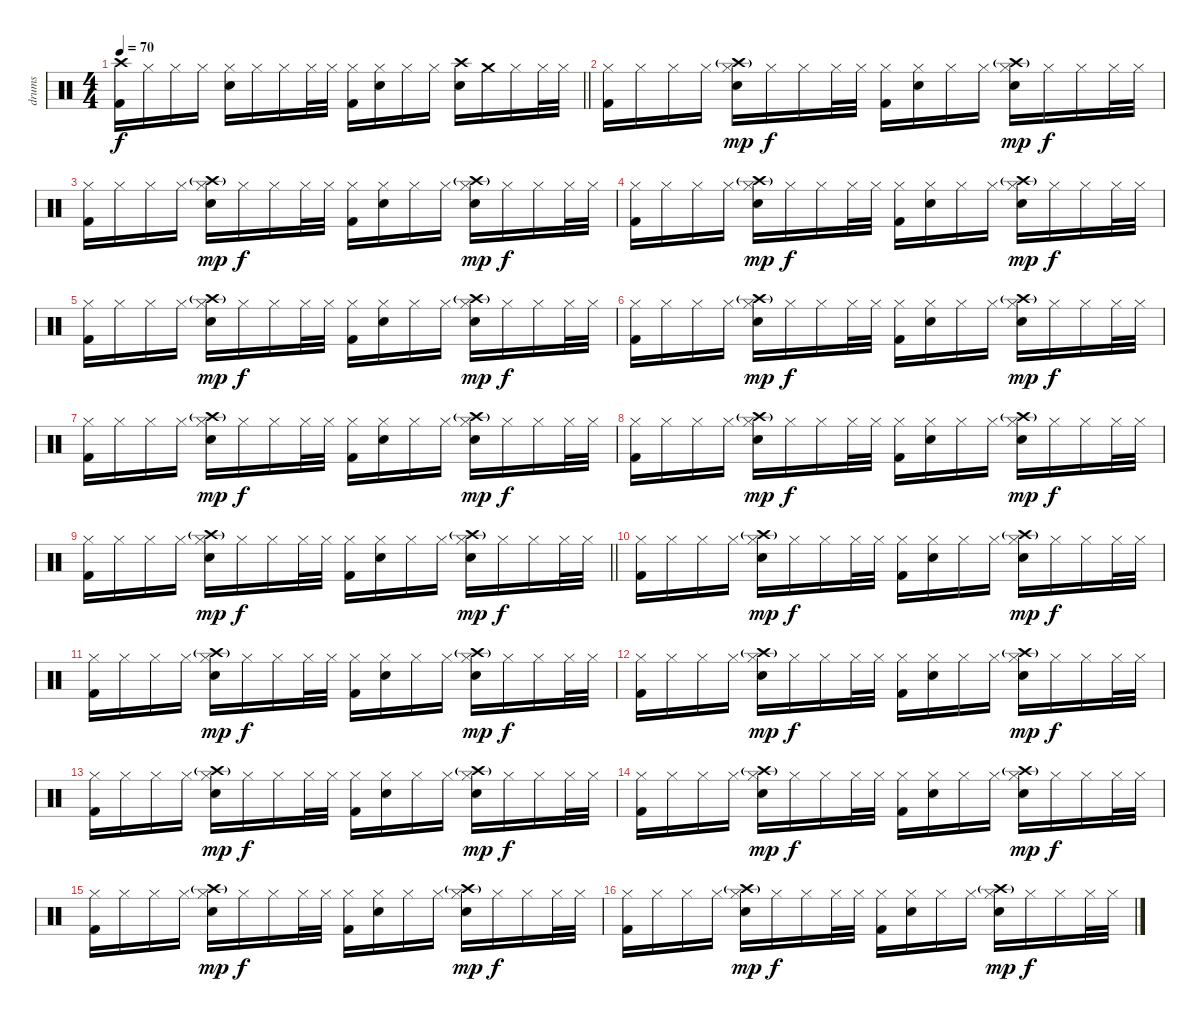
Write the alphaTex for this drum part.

\track ("drums" "drums") {instrument percussion}
\staff {score}
\articulation defaults
\ts (4 4)
\tempo 70
\clef neutral
\barLineRight lightlight
\ks c
("Crash high (hit)" "Kick (hit) 2").16{dy f} "Hi-Hat (closed)".16 "Hi-Hat (closed)".16 "Hi-Hat (closed)".16 ("Hi-Hat (closed)" "Snare (hit) 2").16 "Hi-Hat (closed)".16 "Hi-Hat (closed)".16 "Hi-Hat (closed)".32 "Hi-Hat (closed)".32 ("Hi-Hat (closed)" "Kick (hit) 2").16 ("Hi-Hat (closed)" "Snare (hit) 2").16 "Hi-Hat (closed)".16 "Hi-Hat (closed)".16 ("Crash high (hit)" "Snare (hit) 2").16 "Crash medium (hit)".16 "Hi-Hat (closed)".16 "Hi-Hat (closed)".32 "Hi-Hat (closed)".32 |
("Hi-Hat (closed)" "Kick (hit) 2").16 "Hi-Hat (closed)".16 "Hi-Hat (closed)".16 "Hi-Hat (closed)".16 ("Hi-Hat (closed)" "Crash high (hit)"{g} "Snare (hit) 2").16{dy mp} "Hi-Hat (closed)".16{dy f} "Hi-Hat (closed)".16 "Hi-Hat (closed)".32 "Hi-Hat (closed)".32 ("Hi-Hat (closed)" "Kick (hit) 2").16 ("Hi-Hat (closed)" "Snare (hit) 2").16 "Hi-Hat (closed)".16 "Hi-Hat (closed)".16 ("Hi-Hat (closed)" "Crash high (hit)"{g} "Snare (hit) 2").16{dy mp} "Hi-Hat (closed)".16{dy f} "Hi-Hat (closed)".16 "Hi-Hat (closed)".32 "Hi-Hat (closed)".32 |
("Hi-Hat (closed)" "Kick (hit) 2").16 "Hi-Hat (closed)".16 "Hi-Hat (closed)".16 "Hi-Hat (closed)".16 ("Hi-Hat (closed)" "Crash high (hit)"{g} "Snare (hit) 2").16{dy mp} "Hi-Hat (closed)".16{dy f} "Hi-Hat (closed)".16 "Hi-Hat (closed)".32 "Hi-Hat (closed)".32 ("Hi-Hat (closed)" "Kick (hit) 2").16 ("Hi-Hat (closed)" "Snare (hit) 2").16 "Hi-Hat (closed)".16 "Hi-Hat (closed)".16 ("Hi-Hat (closed)" "Crash high (hit)"{g} "Snare (hit) 2").16{dy mp} "Hi-Hat (closed)".16{dy f} "Hi-Hat (closed)".16 "Hi-Hat (closed)".32 "Hi-Hat (closed)".32 |
("Hi-Hat (closed)" "Kick (hit) 2").16 "Hi-Hat (closed)".16 "Hi-Hat (closed)".16 "Hi-Hat (closed)".16 ("Hi-Hat (closed)" "Crash high (hit)"{g} "Snare (hit) 2").16{dy mp} "Hi-Hat (closed)".16{dy f} "Hi-Hat (closed)".16 "Hi-Hat (closed)".32 "Hi-Hat (closed)".32 ("Hi-Hat (closed)" "Kick (hit) 2").16 ("Hi-Hat (closed)" "Snare (hit) 2").16 "Hi-Hat (closed)".16 "Hi-Hat (closed)".16 ("Hi-Hat (closed)" "Crash high (hit)"{g} "Snare (hit) 2").16{dy mp} "Hi-Hat (closed)".16{dy f} "Hi-Hat (closed)".16 "Hi-Hat (closed)".32 "Hi-Hat (closed)".32 |
("Hi-Hat (closed)" "Kick (hit) 2").16 "Hi-Hat (closed)".16 "Hi-Hat (closed)".16 "Hi-Hat (closed)".16 ("Hi-Hat (closed)" "Crash high (hit)"{g} "Snare (hit) 2").16{dy mp} "Hi-Hat (closed)".16{dy f} "Hi-Hat (closed)".16 "Hi-Hat (closed)".32 "Hi-Hat (closed)".32 ("Hi-Hat (closed)" "Kick (hit) 2").16 ("Hi-Hat (closed)" "Snare (hit) 2").16 "Hi-Hat (closed)".16 "Hi-Hat (closed)".16 ("Hi-Hat (closed)" "Crash high (hit)"{g} "Snare (hit) 2").16{dy mp} "Hi-Hat (closed)".16{dy f} "Hi-Hat (closed)".16 "Hi-Hat (closed)".32 "Hi-Hat (closed)".32 |
("Hi-Hat (closed)" "Kick (hit) 2").16 "Hi-Hat (closed)".16 "Hi-Hat (closed)".16 "Hi-Hat (closed)".16 ("Hi-Hat (closed)" "Crash high (hit)"{g} "Snare (hit) 2").16{dy mp} "Hi-Hat (closed)".16{dy f} "Hi-Hat (closed)".16 "Hi-Hat (closed)".32 "Hi-Hat (closed)".32 ("Hi-Hat (closed)" "Kick (hit) 2").16 ("Hi-Hat (closed)" "Snare (hit) 2").16 "Hi-Hat (closed)".16 "Hi-Hat (closed)".16 ("Hi-Hat (closed)" "Crash high (hit)"{g} "Snare (hit) 2").16{dy mp} "Hi-Hat (closed)".16{dy f} "Hi-Hat (closed)".16 "Hi-Hat (closed)".32 "Hi-Hat (closed)".32 |
("Hi-Hat (closed)" "Kick (hit) 2").16 "Hi-Hat (closed)".16 "Hi-Hat (closed)".16 "Hi-Hat (closed)".16 ("Hi-Hat (closed)" "Crash high (hit)"{g} "Snare (hit) 2").16{dy mp} "Hi-Hat (closed)".16{dy f} "Hi-Hat (closed)".16 "Hi-Hat (closed)".32 "Hi-Hat (closed)".32 ("Hi-Hat (closed)" "Kick (hit) 2").16 ("Hi-Hat (closed)" "Snare (hit) 2").16 "Hi-Hat (closed)".16 "Hi-Hat (closed)".16 ("Hi-Hat (closed)" "Crash high (hit)"{g} "Snare (hit) 2").16{dy mp} "Hi-Hat (closed)".16{dy f} "Hi-Hat (closed)".16 "Hi-Hat (closed)".32 "Hi-Hat (closed)".32 |
("Hi-Hat (closed)" "Kick (hit) 2").16 "Hi-Hat (closed)".16 "Hi-Hat (closed)".16 "Hi-Hat (closed)".16 ("Hi-Hat (closed)" "Crash high (hit)"{g} "Snare (hit) 2").16{dy mp} "Hi-Hat (closed)".16{dy f} "Hi-Hat (closed)".16 "Hi-Hat (closed)".32 "Hi-Hat (closed)".32 ("Hi-Hat (closed)" "Kick (hit) 2").16 ("Hi-Hat (closed)" "Snare (hit) 2").16 "Hi-Hat (closed)".16 "Hi-Hat (closed)".16 ("Hi-Hat (closed)" "Crash high (hit)"{g} "Snare (hit) 2").16{dy mp} "Hi-Hat (closed)".16{dy f} "Hi-Hat (closed)".16 "Hi-Hat (closed)".32 "Hi-Hat (closed)".32 |
\barLineRight lightlight
("Hi-Hat (closed)" "Kick (hit) 2").16 "Hi-Hat (closed)".16 "Hi-Hat (closed)".16 "Hi-Hat (closed)".16 ("Hi-Hat (closed)" "Crash high (hit)"{g} "Snare (hit) 2").16{dy mp} "Hi-Hat (closed)".16{dy f} "Hi-Hat (closed)".16 "Hi-Hat (closed)".32 "Hi-Hat (closed)".32 ("Hi-Hat (closed)" "Kick (hit) 2").16 ("Hi-Hat (closed)" "Snare (hit) 2").16 "Hi-Hat (closed)".16 "Hi-Hat (closed)".16 ("Hi-Hat (closed)" "Crash high (hit)"{g} "Snare (hit) 2").16{dy mp} "Hi-Hat (closed)".16{dy f} "Hi-Hat (closed)".16 "Hi-Hat (closed)".32 "Hi-Hat (closed)".32 |
("Hi-Hat (closed)" "Kick (hit) 2").16 "Hi-Hat (closed)".16 "Hi-Hat (closed)".16 "Hi-Hat (closed)".16 ("Hi-Hat (closed)" "Crash high (hit)"{g} "Snare (hit) 2").16{dy mp} "Hi-Hat (closed)".16{dy f} "Hi-Hat (closed)".16 "Hi-Hat (closed)".32 "Hi-Hat (closed)".32 ("Hi-Hat (closed)" "Kick (hit) 2").16 ("Hi-Hat (closed)" "Snare (hit) 2").16 "Hi-Hat (closed)".16 "Hi-Hat (closed)".16 ("Hi-Hat (closed)" "Crash high (hit)"{g} "Snare (hit) 2").16{dy mp} "Hi-Hat (closed)".16{dy f} "Hi-Hat (closed)".16 "Hi-Hat (closed)".32 "Hi-Hat (closed)".32 |
("Hi-Hat (closed)" "Kick (hit) 2").16 "Hi-Hat (closed)".16 "Hi-Hat (closed)".16 "Hi-Hat (closed)".16 ("Hi-Hat (closed)" "Crash high (hit)"{g} "Snare (hit) 2").16{dy mp} "Hi-Hat (closed)".16{dy f} "Hi-Hat (closed)".16 "Hi-Hat (closed)".32 "Hi-Hat (closed)".32 ("Hi-Hat (closed)" "Kick (hit) 2").16 ("Hi-Hat (closed)" "Snare (hit) 2").16 "Hi-Hat (closed)".16 "Hi-Hat (closed)".16 ("Hi-Hat (closed)" "Crash high (hit)"{g} "Snare (hit) 2").16{dy mp} "Hi-Hat (closed)".16{dy f} "Hi-Hat (closed)".16 "Hi-Hat (closed)".32 "Hi-Hat (closed)".32 |
("Hi-Hat (closed)" "Kick (hit) 2").16 "Hi-Hat (closed)".16 "Hi-Hat (closed)".16 "Hi-Hat (closed)".16 ("Hi-Hat (closed)" "Crash high (hit)"{g} "Snare (hit) 2").16{dy mp} "Hi-Hat (closed)".16{dy f} "Hi-Hat (closed)".16 "Hi-Hat (closed)".32 "Hi-Hat (closed)".32 ("Hi-Hat (closed)" "Kick (hit) 2").16 ("Hi-Hat (closed)" "Snare (hit) 2").16 "Hi-Hat (closed)".16 "Hi-Hat (closed)".16 ("Hi-Hat (closed)" "Crash high (hit)"{g} "Snare (hit) 2").16{dy mp} "Hi-Hat (closed)".16{dy f} "Hi-Hat (closed)".16 "Hi-Hat (closed)".32 "Hi-Hat (closed)".32 |
("Hi-Hat (closed)" "Kick (hit) 2").16 "Hi-Hat (closed)".16 "Hi-Hat (closed)".16 "Hi-Hat (closed)".16 ("Hi-Hat (closed)" "Crash high (hit)"{g} "Snare (hit) 2").16{dy mp} "Hi-Hat (closed)".16{dy f} "Hi-Hat (closed)".16 "Hi-Hat (closed)".32 "Hi-Hat (closed)".32 ("Hi-Hat (closed)" "Kick (hit) 2").16 ("Hi-Hat (closed)" "Snare (hit) 2").16 "Hi-Hat (closed)".16 "Hi-Hat (closed)".16 ("Hi-Hat (closed)" "Crash high (hit)"{g} "Snare (hit) 2").16{dy mp} "Hi-Hat (closed)".16{dy f} "Hi-Hat (closed)".16 "Hi-Hat (closed)".32 "Hi-Hat (closed)".32 |
("Hi-Hat (closed)" "Kick (hit) 2").16 "Hi-Hat (closed)".16 "Hi-Hat (closed)".16 "Hi-Hat (closed)".16 ("Hi-Hat (closed)" "Crash high (hit)"{g} "Snare (hit) 2").16{dy mp} "Hi-Hat (closed)".16{dy f} "Hi-Hat (closed)".16 "Hi-Hat (closed)".32 "Hi-Hat (closed)".32 ("Hi-Hat (closed)" "Kick (hit) 2").16 ("Hi-Hat (closed)" "Snare (hit) 2").16 "Hi-Hat (closed)".16 "Hi-Hat (closed)".16 ("Hi-Hat (closed)" "Crash high (hit)"{g} "Snare (hit) 2").16{dy mp} "Hi-Hat (closed)".16{dy f} "Hi-Hat (closed)".16 "Hi-Hat (closed)".32 "Hi-Hat (closed)".32 |
("Hi-Hat (closed)" "Kick (hit) 2").16 "Hi-Hat (closed)".16 "Hi-Hat (closed)".16 "Hi-Hat (closed)".16 ("Hi-Hat (closed)" "Crash high (hit)"{g} "Snare (hit) 2").16{dy mp} "Hi-Hat (closed)".16{dy f} "Hi-Hat (closed)".16 "Hi-Hat (closed)".32 "Hi-Hat (closed)".32 ("Hi-Hat (closed)" "Kick (hit) 2").16 ("Hi-Hat (closed)" "Snare (hit) 2").16 "Hi-Hat (closed)".16 "Hi-Hat (closed)".16 ("Hi-Hat (closed)" "Crash high (hit)"{g} "Snare (hit) 2").16{dy mp} "Hi-Hat (closed)".16{dy f} "Hi-Hat (closed)".16 "Hi-Hat (closed)".32 "Hi-Hat (closed)".32 |
("Hi-Hat (closed)" "Kick (hit) 2").16 "Hi-Hat (closed)".16 "Hi-Hat (closed)".16 "Hi-Hat (closed)".16 ("Hi-Hat (closed)" "Crash high (hit)"{g} "Snare (hit) 2").16{dy mp} "Hi-Hat (closed)".16{dy f} "Hi-Hat (closed)".16 "Hi-Hat (closed)".32 "Hi-Hat (closed)".32 ("Hi-Hat (closed)" "Kick (hit) 2").16 ("Hi-Hat (closed)" "Snare (hit) 2").16 "Hi-Hat (closed)".16 "Hi-Hat (closed)".16 ("Hi-Hat (closed)" "Crash high (hit)"{g} "Snare (hit) 2").16{dy mp} "Hi-Hat (closed)".16{dy f} "Hi-Hat (closed)".16 "Hi-Hat (closed)".32 "Hi-Hat (closed)".32
